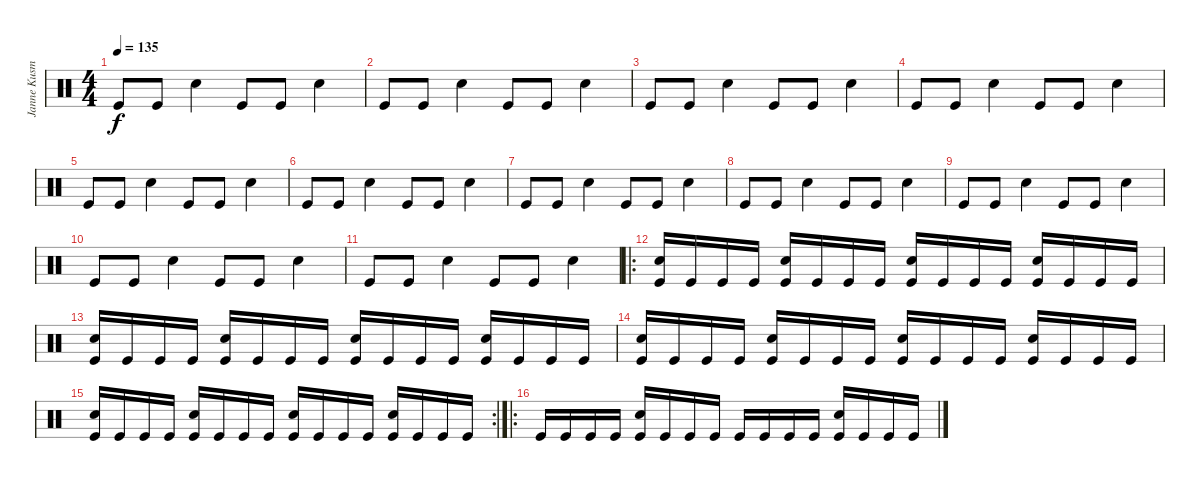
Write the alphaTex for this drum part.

\track ("Janne Kusmin" "Janne Kusm") {instrument percussion}
\staff {score}
\articulation defaults
\ts (4 4)
\tempo 135
\clef neutral
\ks c "Kick (hit)".8{dy f} "Kick (hit)".8 "Snare (hit) 2".4 "Kick (hit)".8 "Kick (hit)".8 "Snare (hit) 2".4
|
"Kick (hit)".8 "Kick (hit)".8 "Snare (hit) 2".4 "Kick (hit)".8 "Kick (hit)".8 "Snare (hit) 2".4 |
"Kick (hit)".8 "Kick (hit)".8 "Snare (hit) 2".4 "Kick (hit)".8 "Kick (hit)".8 "Snare (hit) 2".4 |
"Kick (hit)".8 "Kick (hit)".8 "Snare (hit) 2".4 "Kick (hit)".8 "Kick (hit)".8 "Snare (hit) 2".4 |
"Kick (hit)".8 "Kick (hit)".8 "Snare (hit) 2".4 "Kick (hit)".8 "Kick (hit)".8 "Snare (hit) 2".4 |
"Kick (hit)".8 "Kick (hit)".8 "Snare (hit) 2".4 "Kick (hit)".8 "Kick (hit)".8 "Snare (hit) 2".4 |
"Kick (hit)".8 "Kick (hit)".8 "Snare (hit) 2".4 "Kick (hit)".8 "Kick (hit)".8 "Snare (hit) 2".4 |
"Kick (hit)".8 "Kick (hit)".8 "Snare (hit) 2".4 "Kick (hit)".8 "Kick (hit)".8 "Snare (hit) 2".4 |
"Kick (hit)".8 "Kick (hit)".8 "Snare (hit) 2".4 "Kick (hit)".8 "Kick (hit)".8 "Snare (hit) 2".4 |
"Kick (hit)".8 "Kick (hit)".8 "Snare (hit) 2".4 "Kick (hit)".8 "Kick (hit)".8 "Snare (hit) 2".4 |
"Kick (hit)".8 "Kick (hit)".8 "Snare (hit) 2".4 "Kick (hit)".8 "Kick (hit)".8 "Snare (hit) 2".4 |
\ro
("Snare (hit) 2" "Kick (hit)").16 "Kick (hit)".16 "Kick (hit)".16 "Kick (hit)".16 ("Snare (hit) 2" "Kick (hit)").16 "Kick (hit)".16 "Kick (hit)".16 "Kick (hit)".16 ("Snare (hit) 2" "Kick (hit)").16 "Kick (hit)".16 "Kick (hit)".16 "Kick (hit)".16 ("Snare (hit) 2" "Kick (hit)").16 "Kick (hit)".16 "Kick (hit)".16 "Kick (hit)".16 |
("Snare (hit) 2" "Kick (hit)").16 "Kick (hit)".16 "Kick (hit)".16 "Kick (hit)".16 ("Snare (hit) 2" "Kick (hit)").16 "Kick (hit)".16 "Kick (hit)".16 "Kick (hit)".16 ("Snare (hit) 2" "Kick (hit)").16 "Kick (hit)".16 "Kick (hit)".16 "Kick (hit)".16 ("Snare (hit) 2" "Kick (hit)").16 "Kick (hit)".16 "Kick (hit)".16 "Kick (hit)".16 |
("Snare (hit) 2" "Kick (hit)").16 "Kick (hit)".16 "Kick (hit)".16 "Kick (hit)".16 ("Snare (hit) 2" "Kick (hit)").16 "Kick (hit)".16 "Kick (hit)".16 "Kick (hit)".16 ("Snare (hit) 2" "Kick (hit)").16 "Kick (hit)".16 "Kick (hit)".16 "Kick (hit)".16 ("Snare (hit) 2" "Kick (hit)").16 "Kick (hit)".16 "Kick (hit)".16 "Kick (hit)".16 |
\rc 2
("Snare (hit) 2" "Kick (hit)").16 "Kick (hit)".16 "Kick (hit)".16 "Kick (hit)".16 ("Snare (hit) 2" "Kick (hit)").16 "Kick (hit)".16 "Kick (hit)".16 "Kick (hit)".16 ("Snare (hit) 2" "Kick (hit)").16 "Kick (hit)".16 "Kick (hit)".16 "Kick (hit)".16 ("Snare (hit) 2" "Kick (hit)").16 "Kick (hit)".16 "Kick (hit)".16 "Kick (hit)".16 |
\ro "Kick (hit)".16 "Kick (hit)".16 "Kick (hit)".16 "Kick (hit)".16
("Snare (hit) 2" "Kick (hit)").16 "Kick (hit)".16 "Kick (hit)".16 "Kick (hit)".16 "Kick (hit)".16 "Kick (hit)".16 "Kick (hit)".16 "Kick (hit)".16 ("Snare (hit) 2" "Kick (hit)").16 "Kick (hit)".16 "Kick (hit)".16 "Kick (hit)".16
